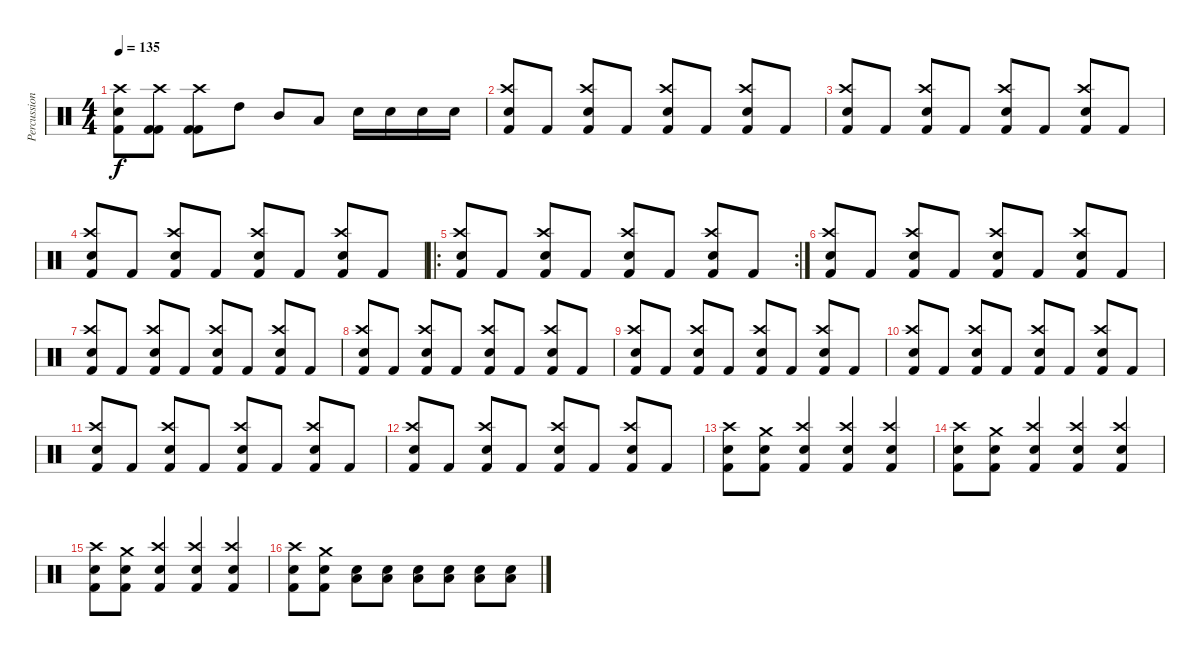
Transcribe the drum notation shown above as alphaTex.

\track ("Percussions" "Percussion") {instrument percussion}
\staff {score}
\articulation defaults
\ts (4 4)
\tempo 135
\clef neutral
\ks c
("Kick (hit) 2" "Crash high (hit)" "Electric Snare (hit)").8{dy f} ("Kick (hit) 2" "Crash high (hit)" "Kick (hit) 2").8 ("Kick (hit) 2" "Crash high (hit)" "Kick (hit) 2").8 "High Tom (hit)".8 "Mid Tom (hit)".8 "Low Tom (hit)".8 "Electric Snare (hit)".16 "Electric Snare (hit)".16 "Electric Snare (hit)".16 "Electric Snare (hit)".16 |
("Crash high (hit)" "Kick (hit) 2" "Electric Snare (hit)").8 "Kick (hit) 2".8 ("Crash high (hit)" "Electric Snare (hit)" "Kick (hit) 2").8 "Kick (hit) 2".8 ("Crash high (hit)" "Kick (hit) 2" "Electric Snare (hit)").8 "Kick (hit) 2".8 ("Crash high (hit)" "Electric Snare (hit)" "Kick (hit) 2").8 "Kick (hit) 2".8 |
("Crash high (hit)" "Kick (hit) 2" "Electric Snare (hit)").8 "Kick (hit) 2".8 ("Crash high (hit)" "Electric Snare (hit)" "Kick (hit) 2").8 "Kick (hit) 2".8 ("Crash high (hit)" "Kick (hit) 2" "Electric Snare (hit)").8 "Kick (hit) 2".8 ("Crash high (hit)" "Electric Snare (hit)" "Kick (hit) 2").8 "Kick (hit) 2".8 |
("Crash high (hit)" "Kick (hit) 2" "Electric Snare (hit)").8 "Kick (hit) 2".8 ("Crash high (hit)" "Electric Snare (hit)" "Kick (hit) 2").8 "Kick (hit) 2".8 ("Crash high (hit)" "Kick (hit) 2" "Electric Snare (hit)").8 "Kick (hit) 2".8 ("Crash high (hit)" "Electric Snare (hit)" "Kick (hit) 2").8 "Kick (hit) 2".8 |
\ro
\rc 2
("Crash high (hit)" "Kick (hit) 2" "Electric Snare (hit)").8 "Kick (hit) 2".8 ("Crash high (hit)" "Electric Snare (hit)" "Kick (hit) 2").8 "Kick (hit) 2".8 ("Crash high (hit)" "Kick (hit) 2" "Electric Snare (hit)").8 "Kick (hit) 2".8 ("Crash high (hit)" "Electric Snare (hit)" "Kick (hit) 2").8 "Kick (hit) 2".8 |
("Crash high (hit)" "Kick (hit) 2" "Electric Snare (hit)").8 "Kick (hit) 2".8 ("Crash high (hit)" "Electric Snare (hit)" "Kick (hit) 2").8 "Kick (hit) 2".8 ("Crash high (hit)" "Kick (hit) 2" "Electric Snare (hit)").8 "Kick (hit) 2".8 ("Crash high (hit)" "Electric Snare (hit)" "Kick (hit) 2").8 "Kick (hit) 2".8 |
("Crash high (hit)" "Kick (hit) 2" "Electric Snare (hit)").8 "Kick (hit) 2".8 ("Crash high (hit)" "Electric Snare (hit)" "Kick (hit) 2").8 "Kick (hit) 2".8 ("Crash high (hit)" "Kick (hit) 2" "Electric Snare (hit)").8 "Kick (hit) 2".8 ("Crash high (hit)" "Electric Snare (hit)" "Kick (hit) 2").8 "Kick (hit) 2".8 |
("Crash high (hit)" "Kick (hit) 2" "Electric Snare (hit)").8 "Kick (hit) 2".8 ("Crash high (hit)" "Electric Snare (hit)" "Kick (hit) 2").8 "Kick (hit) 2".8 ("Crash high (hit)" "Kick (hit) 2" "Electric Snare (hit)").8 "Kick (hit) 2".8 ("Crash high (hit)" "Electric Snare (hit)" "Kick (hit) 2").8 "Kick (hit) 2".8 |
("Crash high (hit)" "Kick (hit) 2" "Electric Snare (hit)").8 "Kick (hit) 2".8 ("Crash high (hit)" "Electric Snare (hit)" "Kick (hit) 2").8 "Kick (hit) 2".8 ("Crash high (hit)" "Kick (hit) 2" "Electric Snare (hit)").8 "Kick (hit) 2".8 ("Crash high (hit)" "Electric Snare (hit)" "Kick (hit) 2").8 "Kick (hit) 2".8 |
("Crash high (hit)" "Kick (hit) 2" "Electric Snare (hit)").8 "Kick (hit) 2".8 ("Crash high (hit)" "Electric Snare (hit)" "Kick (hit) 2").8 "Kick (hit) 2".8 ("Crash high (hit)" "Kick (hit) 2" "Electric Snare (hit)").8 "Kick (hit) 2".8 ("Crash high (hit)" "Electric Snare (hit)" "Kick (hit) 2").8 "Kick (hit) 2".8 |
("Crash high (hit)" "Kick (hit) 2" "Electric Snare (hit)").8 "Kick (hit) 2".8 ("Crash high (hit)" "Electric Snare (hit)" "Kick (hit) 2").8 "Kick (hit) 2".8 ("Crash high (hit)" "Kick (hit) 2" "Electric Snare (hit)").8 "Kick (hit) 2".8 ("Crash high (hit)" "Electric Snare (hit)" "Kick (hit) 2").8 "Kick (hit) 2".8 |
("Crash high (hit)" "Kick (hit) 2" "Electric Snare (hit)").8 "Kick (hit) 2".8 ("Crash high (hit)" "Electric Snare (hit)" "Kick (hit) 2").8 "Kick (hit) 2".8 ("Crash high (hit)" "Kick (hit) 2" "Electric Snare (hit)").8 "Kick (hit) 2".8 ("Crash high (hit)" "Electric Snare (hit)" "Kick (hit) 2").8 "Kick (hit) 2".8 |
("Electric Snare (hit)" "Kick (hit) 2" "Crash high (hit)").8 ("Electric Snare (hit)" "Kick (hit) 2" "Crash medium (hit)").8 ("Crash high (hit)" "Electric Snare (hit)" "Kick (hit) 2").4 ("Crash high (hit)" "Electric Snare (hit)" "Kick (hit) 2").4 ("Crash high (hit)" "Electric Snare (hit)" "Kick (hit) 2").4 |
("Electric Snare (hit)" "Kick (hit) 2" "Crash high (hit)").8 ("Electric Snare (hit)" "Kick (hit) 2" "Crash medium (hit)").8 ("Crash high (hit)" "Electric Snare (hit)" "Kick (hit) 2").4 ("Crash high (hit)" "Electric Snare (hit)" "Kick (hit) 2").4 ("Crash high (hit)" "Electric Snare (hit)" "Kick (hit) 2").4 |
("Electric Snare (hit)" "Kick (hit) 2" "Crash high (hit)").8 ("Electric Snare (hit)" "Kick (hit) 2" "Crash medium (hit)").8 ("Crash high (hit)" "Electric Snare (hit)" "Kick (hit) 2").4 ("Crash high (hit)" "Electric Snare (hit)" "Kick (hit) 2").4 ("Crash high (hit)" "Electric Snare (hit)" "Kick (hit) 2").4 |
("Electric Snare (hit)" "Kick (hit) 2" "Crash high (hit)").8 ("Electric Snare (hit)" "Kick (hit) 2" "Crash medium (hit)").8 ("Low Tom (hit)" "Electric Snare (hit)").8 ("Low Tom (hit)" "Electric Snare (hit)").8 ("Low Tom (hit)" "Electric Snare (hit)").8 ("Low Tom (hit)" "Electric Snare (hit)").8 ("Low Tom (hit)" "Electric Snare (hit)").8 ("Low Tom (hit)" "Electric Snare (hit)").8
